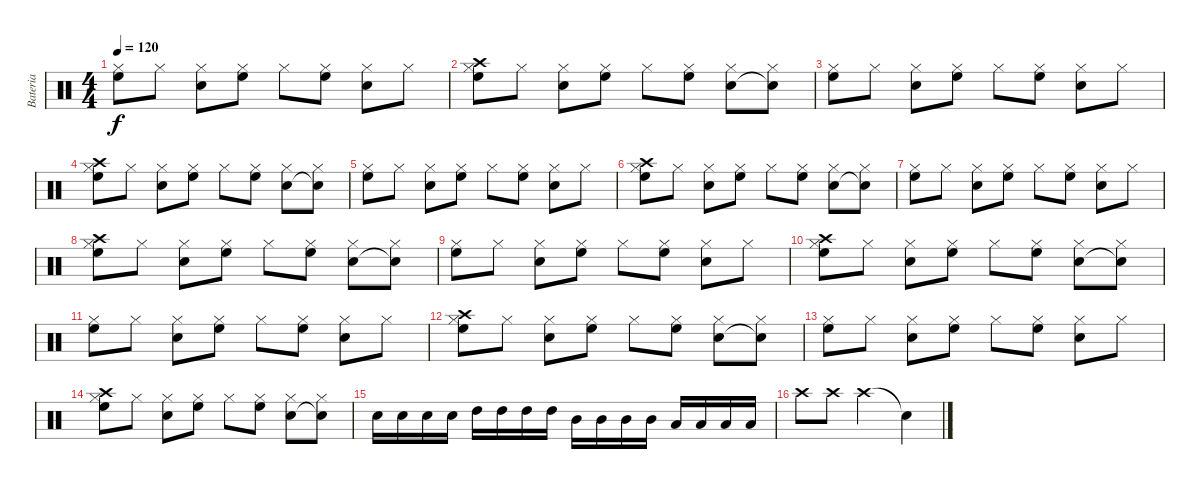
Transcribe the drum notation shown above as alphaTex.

\track ("Bateria" "Bateria") {instrument percussion}
\staff {score}
\articulation defaults
\ts (4 4)
\tempo 120
\clef neutral
\ks c
("Hi-Hat (closed)" "High Floor Tom (hit)").8{dy f} "Hi-Hat (closed)".8 ("Hi-Hat (closed)" "Snare (hit) 2").8 ("Hi-Hat (closed)" "High Floor Tom (hit)").8 "Hi-Hat (closed)".8 ("Hi-Hat (closed)" "High Floor Tom (hit)").8 ("Hi-Hat (closed)" "Snare (hit) 2").8 "Hi-Hat (closed)".8 |
("Hi-Hat (closed)" "Crash high (hit)" "High Floor Tom (hit)").8 "Hi-Hat (closed)".8 ("Hi-Hat (closed)" "Snare (hit) 2").8 ("Hi-Hat (closed)" "High Floor Tom (hit)").8 "Hi-Hat (closed)".8 ("Hi-Hat (closed)" "High Floor Tom (hit)").8 ("Hi-Hat (closed)" "Snare (hit) 2").8 ("Hi-Hat (closed)" "Snare (hit)"{t}).8 |
("Hi-Hat (closed)" "High Floor Tom (hit)").8 "Hi-Hat (closed)".8 ("Hi-Hat (closed)" "Snare (hit) 2").8 ("Hi-Hat (closed)" "High Floor Tom (hit)").8 "Hi-Hat (closed)".8 ("Hi-Hat (closed)" "High Floor Tom (hit)").8 ("Hi-Hat (closed)" "Snare (hit) 2").8 "Hi-Hat (closed)".8 |
("Hi-Hat (closed)" "Crash high (hit)" "High Floor Tom (hit)").8 "Hi-Hat (closed)".8 ("Hi-Hat (closed)" "Snare (hit) 2").8 ("Hi-Hat (closed)" "High Floor Tom (hit)").8 "Hi-Hat (closed)".8 ("Hi-Hat (closed)" "High Floor Tom (hit)").8 ("Hi-Hat (closed)" "Snare (hit) 2").8 ("Hi-Hat (closed)" "Snare (hit)"{t}).8 |
("Hi-Hat (closed)" "High Floor Tom (hit)").8 "Hi-Hat (closed)".8 ("Hi-Hat (closed)" "Snare (hit) 2").8 ("Hi-Hat (closed)" "High Floor Tom (hit)").8 "Hi-Hat (closed)".8 ("Hi-Hat (closed)" "High Floor Tom (hit)").8 ("Hi-Hat (closed)" "Snare (hit) 2").8 "Hi-Hat (closed)".8 |
("Hi-Hat (closed)" "Crash high (hit)" "High Floor Tom (hit)").8 "Hi-Hat (closed)".8 ("Hi-Hat (closed)" "Snare (hit) 2").8 ("Hi-Hat (closed)" "High Floor Tom (hit)").8 "Hi-Hat (closed)".8 ("Hi-Hat (closed)" "High Floor Tom (hit)").8 ("Hi-Hat (closed)" "Snare (hit) 2").8 ("Hi-Hat (closed)" "Snare (hit)"{t}).8 |
("Hi-Hat (closed)" "High Floor Tom (hit)").8 "Hi-Hat (closed)".8 ("Hi-Hat (closed)" "Snare (hit) 2").8 ("Hi-Hat (closed)" "High Floor Tom (hit)").8 "Hi-Hat (closed)".8 ("Hi-Hat (closed)" "High Floor Tom (hit)").8 ("Hi-Hat (closed)" "Snare (hit) 2").8 "Hi-Hat (closed)".8 |
("Hi-Hat (closed)" "Crash high (hit)" "High Floor Tom (hit)").8 "Hi-Hat (closed)".8 ("Hi-Hat (closed)" "Snare (hit) 2").8 ("Hi-Hat (closed)" "High Floor Tom (hit)").8 "Hi-Hat (closed)".8 ("Hi-Hat (closed)" "High Floor Tom (hit)").8 ("Hi-Hat (closed)" "Snare (hit) 2").8 ("Hi-Hat (closed)" "Snare (hit)"{t}).8 |
("Hi-Hat (closed)" "High Floor Tom (hit)").8 "Hi-Hat (closed)".8 ("Hi-Hat (closed)" "Snare (hit) 2").8 ("Hi-Hat (closed)" "High Floor Tom (hit)").8 "Hi-Hat (closed)".8 ("Hi-Hat (closed)" "High Floor Tom (hit)").8 ("Hi-Hat (closed)" "Snare (hit) 2").8 "Hi-Hat (closed)".8 |
("Hi-Hat (closed)" "Crash high (hit)" "High Floor Tom (hit)").8 "Hi-Hat (closed)".8 ("Hi-Hat (closed)" "Snare (hit) 2").8 ("Hi-Hat (closed)" "High Floor Tom (hit)").8 "Hi-Hat (closed)".8 ("Hi-Hat (closed)" "High Floor Tom (hit)").8 ("Hi-Hat (closed)" "Snare (hit) 2").8 ("Hi-Hat (closed)" "Snare (hit)"{t}).8 |
("Hi-Hat (closed)" "High Floor Tom (hit)").8 "Hi-Hat (closed)".8 ("Hi-Hat (closed)" "Snare (hit) 2").8 ("Hi-Hat (closed)" "High Floor Tom (hit)").8 "Hi-Hat (closed)".8 ("Hi-Hat (closed)" "High Floor Tom (hit)").8 ("Hi-Hat (closed)" "Snare (hit) 2").8 "Hi-Hat (closed)".8 |
("Hi-Hat (closed)" "Crash high (hit)" "High Floor Tom (hit)").8 "Hi-Hat (closed)".8 ("Hi-Hat (closed)" "Snare (hit) 2").8 ("Hi-Hat (closed)" "High Floor Tom (hit)").8 "Hi-Hat (closed)".8 ("Hi-Hat (closed)" "High Floor Tom (hit)").8 ("Hi-Hat (closed)" "Snare (hit) 2").8 ("Hi-Hat (closed)" "Snare (hit)"{t}).8 |
("Hi-Hat (closed)" "High Floor Tom (hit)").8 "Hi-Hat (closed)".8 ("Hi-Hat (closed)" "Snare (hit) 2").8 ("Hi-Hat (closed)" "High Floor Tom (hit)").8 "Hi-Hat (closed)".8 ("Hi-Hat (closed)" "High Floor Tom (hit)").8 ("Hi-Hat (closed)" "Snare (hit) 2").8 "Hi-Hat (closed)".8 |
("Hi-Hat (closed)" "Crash high (hit)" "High Floor Tom (hit)").8 "Hi-Hat (closed)".8 ("Hi-Hat (closed)" "Snare (hit) 2").8 ("Hi-Hat (closed)" "High Floor Tom (hit)").8 "Hi-Hat (closed)".8 ("Hi-Hat (closed)" "High Floor Tom (hit)").8 ("Hi-Hat (closed)" "Snare (hit) 2").8 ("Hi-Hat (closed)" "Snare (hit)"{t}).8 |
"Snare (hit) 2".16 "Snare (hit) 2".16 "Snare (hit) 2".16 "Snare (hit) 2".16 "High Tom (hit)".16 "High Tom (hit)".16 "High Tom (hit)".16 "High Tom (hit)".16 "Mid Tom (hit)".16 "Mid Tom (hit)".16 "Mid Tom (hit)".16 "Mid Tom (hit)".16 "Low Tom (hit)".16 "Low Tom (hit)".16 "Low Tom (hit)".16 "Low Tom (hit)".16 |
"Crash high (hit)".8 "Crash high (hit)".8 "Crash high (hit)".2 "Snare (hit)"{t}.4
